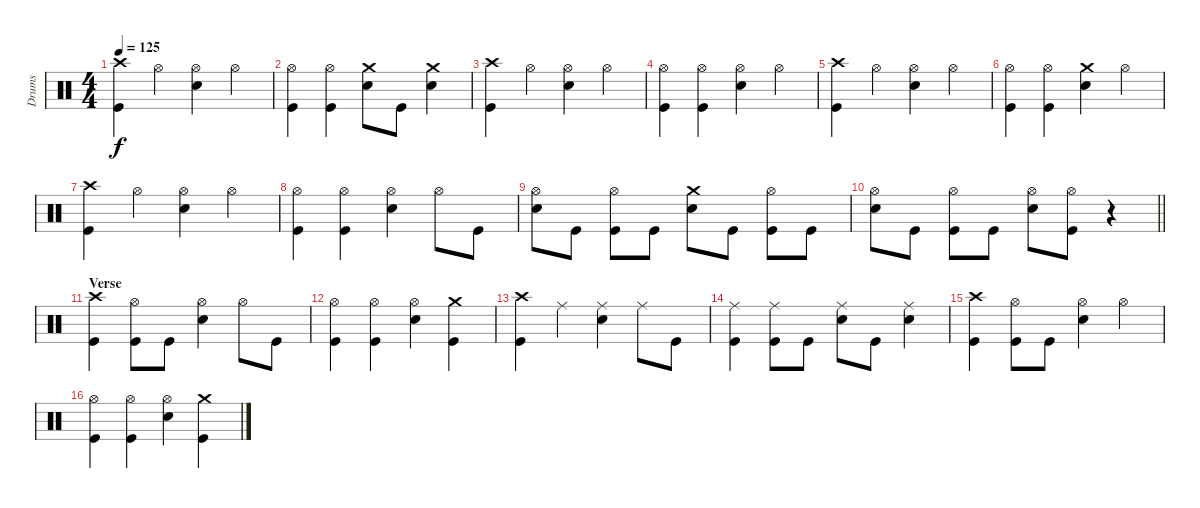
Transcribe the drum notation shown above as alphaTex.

\track ("Drums" "Drums") {instrument percussion}
\staff {score}
\articulation defaults
\ts (4 4)
\tempo 125
\clef neutral
\ks c
("Crash high (hit)" "Kick (hit)").4{dy f} "Hi-Hat (open)".4 ("Hi-Hat (open)" "Snare (hit) 2").4 "Hi-Hat (open)".4 |
("Hi-Hat (open)" "Kick (hit)").4 ("Hi-Hat (open)" "Kick (hit)").4 ("Crash medium (hit)" "Snare (hit) 2").8 "Kick (hit)".8 ("Crash medium (hit)" "Snare (hit) 2").4 |
("Crash high (hit)" "Kick (hit)").4 "Hi-Hat (open)".4 ("Hi-Hat (open)" "Snare (hit) 2").4 "Hi-Hat (open)".4 |
("Hi-Hat (open)" "Kick (hit)").4 ("Hi-Hat (open)" "Kick (hit)").4 ("Hi-Hat (open)" "Snare (hit) 2").4 "Hi-Hat (open)".4 |
("Crash high (hit)" "Kick (hit)").4 "Hi-Hat (open)".4 ("Hi-Hat (open)" "Snare (hit) 2").4 "Hi-Hat (open)".4 |
("Hi-Hat (open)" "Kick (hit)").4 ("Hi-Hat (open)" "Kick (hit)").4 ("Crash medium (hit)" "Snare (hit) 2").4 "Hi-Hat (open)".4 |
("Crash high (hit)" "Kick (hit)").4 "Hi-Hat (open)".4 ("Hi-Hat (open)" "Snare (hit) 2").4 "Hi-Hat (open)".4 |
("Hi-Hat (open)" "Kick (hit)").4 ("Hi-Hat (open)" "Kick (hit)").4 ("Hi-Hat (open)" "Snare (hit) 2").4 "Hi-Hat (open)".8 "Kick (hit)".8 |
("Hi-Hat (open)" "Snare (hit) 2").8 "Kick (hit)".8 ("Hi-Hat (open)" "Kick (hit)").8 "Kick (hit)".8 ("Crash medium (hit)" "Snare (hit) 2").8 "Kick (hit)".8 ("Hi-Hat (open)" "Kick (hit)").8 "Kick (hit)".8 |
\barLineRight lightlight
("Hi-Hat (open)" "Snare (hit) 2").8 "Kick (hit)".8 ("Hi-Hat (open)" "Kick (hit)").8 "Kick (hit)".8 ("Hi-Hat (open)" "Snare (hit) 2").8 ("Hi-Hat (open)" "Kick (hit)").8 r.4 |
\section ("" "Verse")
("Crash high (hit)" "Kick (hit)").4 ("Hi-Hat (open)" "Kick (hit)").8 "Kick (hit)".8 ("Hi-Hat (open)" "Snare (hit) 2").4 "Hi-Hat (open)".8 "Kick (hit)".8 |
("Hi-Hat (open)" "Kick (hit)").4 ("Hi-Hat (open)" "Kick (hit)").4 ("Hi-Hat (open)" "Snare (hit) 2").4 ("Crash medium (hit)" "Kick (hit)").4 |
("Crash high (hit)" "Kick (hit)").4 "Ride (middle)".4 ("Ride (middle)" "Snare (hit) 2").4 "Ride (middle)".8 "Kick (hit)".8 |
("Ride (middle)" "Kick (hit)").4 ("Ride (middle)" "Kick (hit)").8 "Kick (hit)".8 ("Ride (middle)" "Snare (hit) 2").8 "Kick (hit)".8 ("Ride (middle)" "Snare (hit) 2").4 |
("Crash high (hit)" "Kick (hit)").4 ("Hi-Hat (open)" "Kick (hit)").8 "Kick (hit)".8 ("Hi-Hat (open)" "Snare (hit) 2").4 "Hi-Hat (open)".4 |
("Hi-Hat (open)" "Kick (hit)").4 ("Hi-Hat (open)" "Kick (hit)").4 ("Hi-Hat (open)" "Snare (hit) 2").4 ("Crash medium (hit)" "Kick (hit)").4
